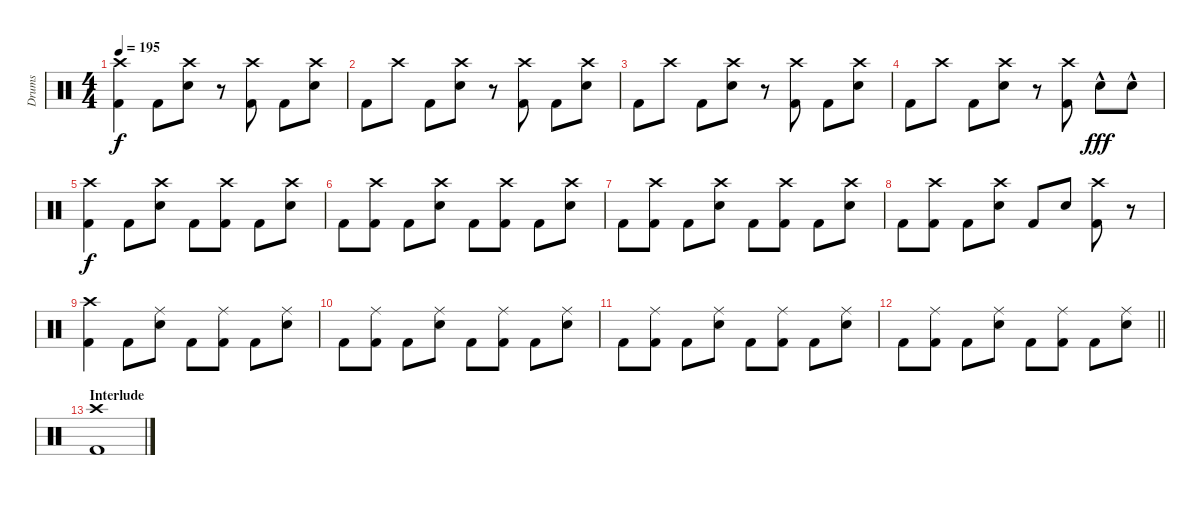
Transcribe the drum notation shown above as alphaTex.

\track ("Drums" "Drums") {instrument percussion}
\staff {score}
\articulation defaults
\ts (4 4)
\tempo 195
\clef neutral
\ks c
("Crash high (hit)" "Kick (hit) 2").4{dy f} "Kick (hit) 2".8 ("Crash high (hit)" "Electric Snare (hit)").8 r.8 ("Crash high (hit)" "Kick (hit) 2").8 "Kick (hit) 2".8 ("Crash high (hit)" "Electric Snare (hit)").8 |
"Kick (hit) 2".8 "Crash high (hit)".8 "Kick (hit) 2".8 ("Crash high (hit)" "Electric Snare (hit)").8 r.8 ("Crash high (hit)" "Kick (hit) 2").8 "Kick (hit) 2".8 ("Crash high (hit)" "Electric Snare (hit)").8 |
"Kick (hit) 2".8 "Crash high (hit)".8 "Kick (hit) 2".8 ("Crash high (hit)" "Electric Snare (hit)").8 r.8 ("Crash high (hit)" "Kick (hit) 2").8 "Kick (hit) 2".8 ("Crash high (hit)" "Electric Snare (hit)").8 |
"Kick (hit) 2".8 "Crash high (hit)".8 "Kick (hit) 2".8 ("Crash high (hit)" "Electric Snare (hit)").8 r.8 ("Crash high (hit)" "Kick (hit) 2").8 "Electric Snare (hit)"{hac}.8{dy fff} "Electric Snare (hit)"{hac}.8 |
("Crash high (hit)" "Kick (hit) 2").4{dy f} "Kick (hit) 2".8 ("Crash high (hit)" "Electric Snare (hit)").8 "Kick (hit) 2".8 ("Crash high (hit)" "Kick (hit) 2").8 "Kick (hit) 2".8 ("Crash high (hit)" "Electric Snare (hit)").8 |
"Kick (hit) 2".8 ("Crash high (hit)" "Kick (hit) 2").8 "Kick (hit) 2".8 ("Crash high (hit)" "Electric Snare (hit)").8 "Kick (hit) 2".8 ("Crash high (hit)" "Kick (hit) 2").8 "Kick (hit) 2".8 ("Crash high (hit)" "Electric Snare (hit)").8 |
"Kick (hit) 2".8 ("Crash high (hit)" "Kick (hit) 2").8 "Kick (hit) 2".8 ("Crash high (hit)" "Electric Snare (hit)").8 "Kick (hit) 2".8 ("Crash high (hit)" "Kick (hit) 2").8 "Kick (hit) 2".8 ("Crash high (hit)" "Electric Snare (hit)").8 |
"Kick (hit) 2".8 ("Crash high (hit)" "Kick (hit) 2").8 "Kick (hit) 2".8 ("Crash high (hit)" "Electric Snare (hit)").8 "Kick (hit) 2".8 "Electric Snare (hit)".8 ("Crash high (hit)" "Kick (hit) 2").8 r.8 |
("Crash high (hit)" "Kick (hit) 2").4 "Kick (hit) 2".8 ("Ride (middle)" "Electric Snare (hit)").8 "Kick (hit) 2".8 ("Ride (middle)" "Kick (hit) 2").8 "Kick (hit) 2".8 ("Ride (middle)" "Electric Snare (hit)").8 |
"Kick (hit) 2".8 ("Ride (middle)" "Kick (hit) 2").8 "Kick (hit) 2".8 ("Ride (middle)" "Electric Snare (hit)").8 "Kick (hit) 2".8 ("Ride (middle)" "Kick (hit) 2").8 "Kick (hit) 2".8 ("Ride (middle)" "Electric Snare (hit)").8 |
"Kick (hit) 2".8 ("Ride (middle)" "Kick (hit) 2").8 "Kick (hit) 2".8 ("Ride (middle)" "Electric Snare (hit)").8 "Kick (hit) 2".8 ("Ride (middle)" "Kick (hit) 2").8 "Kick (hit) 2".8 ("Ride (middle)" "Electric Snare (hit)").8 |
\barLineRight lightlight "Kick (hit) 2".8
("Ride (middle)" "Kick (hit) 2").8 "Kick (hit) 2".8 ("Ride (middle)" "Electric Snare (hit)").8 "Kick (hit) 2".8 ("Ride (middle)" "Kick (hit) 2").8 "Kick (hit) 2".8 ("Ride (middle)" "Electric Snare (hit)").8 |
\section ("" "Interlude")
("Crash high (hit)" "Kick (hit) 2").1
